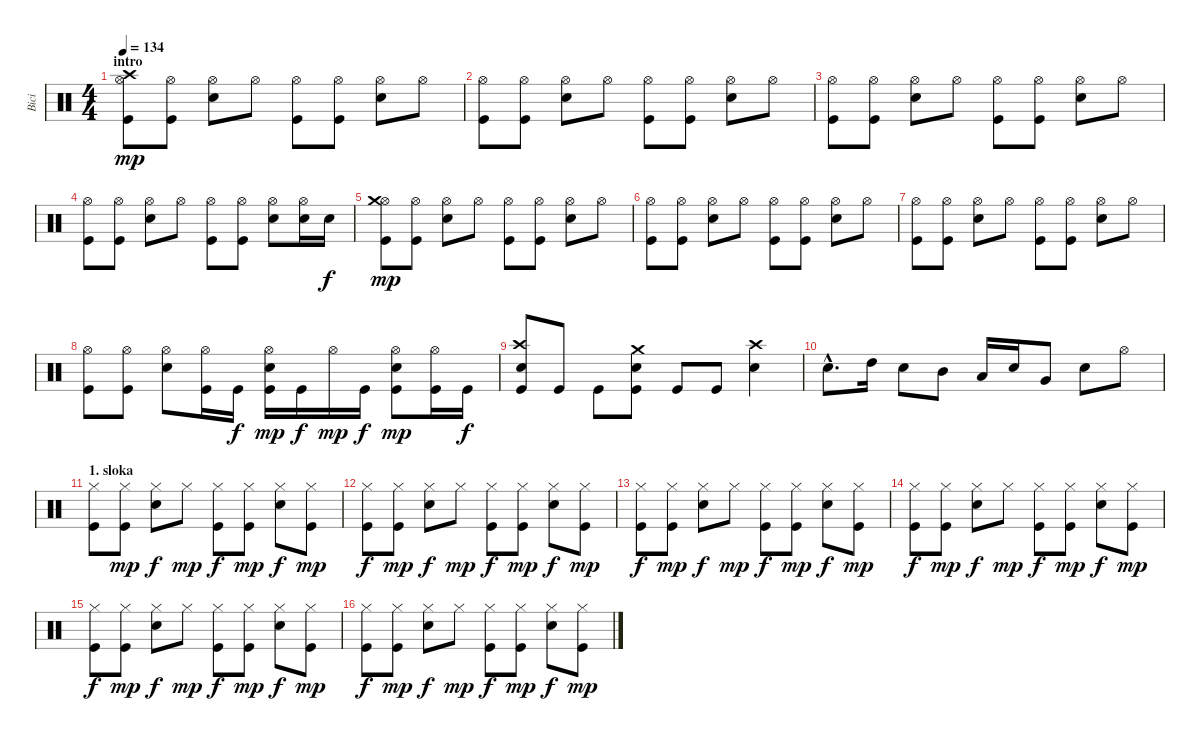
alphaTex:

\track ("Bici" "Bici") {instrument percussion}
\staff {score}
\articulation defaults
\ts (4 4)
\section ("" "intro")
\tempo 134
\clef neutral
\ks c
("Kick (hit)" "Hi-Hat (open)" "Crash high (hit)").8{dy mp} ("Kick (hit)" "Hi-Hat (open)").8 ("Electric Snare (hit)" "Hi-Hat (open)").8 "Hi-Hat (open)".8 ("Kick (hit)" "Hi-Hat (open)").8 ("Kick (hit)" "Hi-Hat (open)").8 ("Electric Snare (hit)" "Hi-Hat (open)").8 "Hi-Hat (open)".8 |
("Kick (hit)" "Hi-Hat (open)").8 ("Kick (hit)" "Hi-Hat (open)").8 ("Electric Snare (hit)" "Hi-Hat (open)").8 "Hi-Hat (open)".8 ("Kick (hit)" "Hi-Hat (open)").8 ("Kick (hit)" "Hi-Hat (open)").8 ("Electric Snare (hit)" "Hi-Hat (open)").8 "Hi-Hat (open)".8 |
("Kick (hit)" "Hi-Hat (open)").8 ("Kick (hit)" "Hi-Hat (open)").8 ("Electric Snare (hit)" "Hi-Hat (open)").8 "Hi-Hat (open)".8 ("Kick (hit)" "Hi-Hat (open)").8 ("Kick (hit)" "Hi-Hat (open)").8 ("Electric Snare (hit)" "Hi-Hat (open)").8 "Hi-Hat (open)".8 |
("Kick (hit)" "Hi-Hat (open)").8 ("Kick (hit)" "Hi-Hat (open)").8 ("Electric Snare (hit)" "Hi-Hat (open)").8 "Hi-Hat (open)".8 ("Kick (hit)" "Hi-Hat (open)").8 ("Kick (hit)" "Hi-Hat (open)").8 ("Electric Snare (hit)" "Hi-Hat (open)").8 ("Electric Snare (hit)" "Hi-Hat (open)").16 "Electric Snare (hit)".16{dy f} |
("Kick (hit)" "Hi-Hat (open)" "Crash medium (hit)").8{dy mp} ("Kick (hit)" "Hi-Hat (open)").8 ("Electric Snare (hit)" "Hi-Hat (open)").8 "Hi-Hat (open)".8 ("Kick (hit)" "Hi-Hat (open)").8 ("Kick (hit)" "Hi-Hat (open)").8 ("Electric Snare (hit)" "Hi-Hat (open)").8 "Hi-Hat (open)".8 |
("Kick (hit)" "Hi-Hat (open)").8 ("Kick (hit)" "Hi-Hat (open)").8 ("Electric Snare (hit)" "Hi-Hat (open)").8 "Hi-Hat (open)".8 ("Kick (hit)" "Hi-Hat (open)").8 ("Kick (hit)" "Hi-Hat (open)").8 ("Electric Snare (hit)" "Hi-Hat (open)").8 "Hi-Hat (open)".8 |
("Kick (hit)" "Hi-Hat (open)").8 ("Kick (hit)" "Hi-Hat (open)").8 ("Electric Snare (hit)" "Hi-Hat (open)").8 "Hi-Hat (open)".8 ("Kick (hit)" "Hi-Hat (open)").8 ("Kick (hit)" "Hi-Hat (open)").8 ("Electric Snare (hit)" "Hi-Hat (open)").8 "Hi-Hat (open)".8 |
("Kick (hit)" "Hi-Hat (open)").8 ("Kick (hit)" "Hi-Hat (open)").8 ("Electric Snare (hit)" "Hi-Hat (open)").8 ("Kick (hit)" "Hi-Hat (open)").16 "Kick (hit)".16{dy f} ("Kick (hit)" "Electric Snare (hit)" "Hi-Hat (open)").16{dy mp} "Kick (hit)".16{dy f} "Hi-Hat (open)".16{dy mp} "Kick (hit)".16{dy f} ("Kick (hit)" "Electric Snare (hit)" "Hi-Hat (open)").8{dy mp} ("Kick (hit)" "Hi-Hat (open)").16 "Kick (hit)".16{dy f} |
("Kick (hit)" "Electric Snare (hit)" "Crash high (hit)").8 "Kick (hit)".8 "Kick (hit)".8 ("Kick (hit)" "Electric Snare (hit)" "Crash medium (hit)").8 "Kick (hit)".8 "Kick (hit)".8 ("Electric Snare (hit)" "Crash high (hit)").4 |
"Electric Snare (hit)"{hac}.8{d} "High Tom (hit)".16 "Electric Snare (hit)".8 "Mid Tom (hit)".8 "Low Tom (hit)".16 "Electric Snare (hit)".16 "Very Low Tom (hit)".8 "Electric Snare (hit)".8 "Hi-Hat (open)".8 |
\section ("" "1. sloka")
("Kick (hit)" "Hi-Hat (closed)").8 ("Kick (hit)" "Hi-Hat (closed)").8{dy mp} ("Snare (hit) 2" "Hi-Hat (closed)").8{dy f} "Hi-Hat (closed)".8{dy mp} ("Kick (hit)" "Hi-Hat (closed)").8{dy f} ("Kick (hit)" "Hi-Hat (closed)").8{dy mp} ("Snare (hit) 2" "Hi-Hat (closed)").8{dy f} ("Kick (hit)" "Hi-Hat (closed)").8{dy mp} |
("Kick (hit)" "Hi-Hat (closed)").8{dy f} ("Kick (hit)" "Hi-Hat (closed)").8{dy mp} ("Snare (hit) 2" "Hi-Hat (closed)").8{dy f} "Hi-Hat (closed)".8{dy mp} ("Kick (hit)" "Hi-Hat (closed)").8{dy f} ("Kick (hit)" "Hi-Hat (closed)").8{dy mp} ("Snare (hit) 2" "Hi-Hat (closed)").8{dy f} ("Kick (hit)" "Hi-Hat (closed)").8{dy mp} |
("Kick (hit)" "Hi-Hat (closed)").8{dy f} ("Kick (hit)" "Hi-Hat (closed)").8{dy mp} ("Snare (hit) 2" "Hi-Hat (closed)").8{dy f} "Hi-Hat (closed)".8{dy mp} ("Kick (hit)" "Hi-Hat (closed)").8{dy f} ("Kick (hit)" "Hi-Hat (closed)").8{dy mp} ("Snare (hit) 2" "Hi-Hat (closed)").8{dy f} ("Kick (hit)" "Hi-Hat (closed)").8{dy mp} |
("Kick (hit)" "Hi-Hat (closed)").8{dy f} ("Kick (hit)" "Hi-Hat (closed)").8{dy mp} ("Snare (hit) 2" "Hi-Hat (closed)").8{dy f} "Hi-Hat (closed)".8{dy mp} ("Kick (hit)" "Hi-Hat (closed)").8{dy f} ("Kick (hit)" "Hi-Hat (closed)").8{dy mp} ("Snare (hit) 2" "Hi-Hat (closed)").8{dy f} ("Kick (hit)" "Hi-Hat (closed)").8{dy mp} |
("Kick (hit)" "Hi-Hat (closed)").8{dy f} ("Kick (hit)" "Hi-Hat (closed)").8{dy mp} ("Snare (hit) 2" "Hi-Hat (closed)").8{dy f} "Hi-Hat (closed)".8{dy mp} ("Kick (hit)" "Hi-Hat (closed)").8{dy f} ("Kick (hit)" "Hi-Hat (closed)").8{dy mp} ("Snare (hit) 2" "Hi-Hat (closed)").8{dy f} ("Kick (hit)" "Hi-Hat (closed)").8{dy mp} |
("Kick (hit)" "Hi-Hat (closed)").8{dy f} ("Kick (hit)" "Hi-Hat (closed)").8{dy mp} ("Snare (hit) 2" "Hi-Hat (closed)").8{dy f} "Hi-Hat (closed)".8{dy mp} ("Kick (hit)" "Hi-Hat (closed)").8{dy f} ("Kick (hit)" "Hi-Hat (closed)").8{dy mp} ("Snare (hit) 2" "Hi-Hat (closed)").8{dy f} ("Kick (hit)" "Hi-Hat (closed)").8{dy mp}
